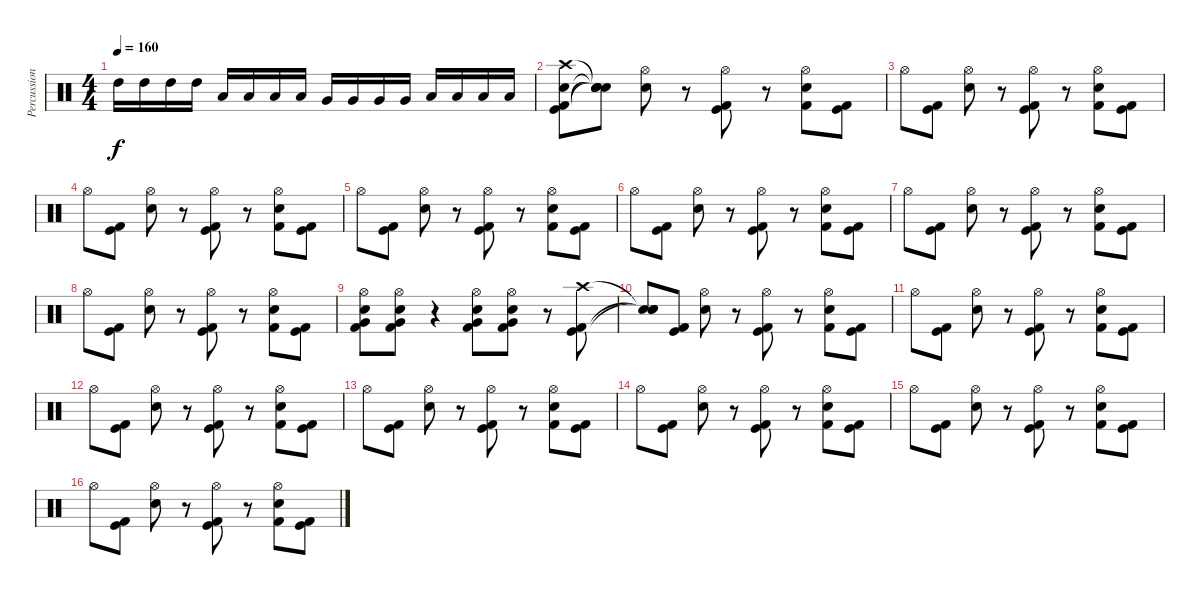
\track ("Percussions" "Percussion") {instrument percussion}
\staff {score}
\articulation defaults
\ts (4 4)
\tempo 160
\clef neutral
\ks c "High Tom (hit)".16{dy f} "High Tom (hit)".16 "High Tom (hit)".16 "High Tom (hit)".16 "Low Tom (hit)".16 "Low Tom (hit)".16 "Low Tom (hit)".16 "Low Tom (hit)".16 "Very Low Tom (hit)".16 "Very Low Tom (hit)".16 "Very Low Tom (hit)".16 "Very Low Tom (hit)".16 "Low Floor Tom (hit)".16 "Low Floor Tom (hit)".16 "Low Floor Tom (hit)".16 "Low Floor Tom (hit)".16
|
("Snare (hit) 2" "Kick (hit)" "Kick (hit) 2" "Crash high (hit)").8 ("Snare (hit)"{t} "Snare (hit)"{t} "Snare (hit)"{t} "Snare (hit)"{t}).8 ("Snare (hit) 2" "Hi-Hat (open)").8 r.8 ("Kick (hit) 2" "Kick (hit)" "Hi-Hat (open)").8 r.8 ("Kick (hit) 2" "Snare (hit) 2" "Hi-Hat (open)").8 ("Kick (hit) 2" "Kick (hit)").8 |
"Hi-Hat (open)".8 ("Kick (hit) 2" "Kick (hit)").8 ("Snare (hit) 2" "Hi-Hat (open)").8 r.8 ("Kick (hit) 2" "Kick (hit)" "Hi-Hat (open)").8 r.8 ("Kick (hit) 2" "Snare (hit) 2" "Hi-Hat (open)").8 ("Kick (hit) 2" "Kick (hit)").8 |
"Hi-Hat (open)".8 ("Kick (hit) 2" "Kick (hit)").8 ("Snare (hit) 2" "Hi-Hat (open)").8 r.8 ("Kick (hit) 2" "Kick (hit)" "Hi-Hat (open)").8 r.8 ("Kick (hit) 2" "Snare (hit) 2" "Hi-Hat (open)").8 ("Kick (hit) 2" "Kick (hit)").8 |
"Hi-Hat (open)".8 ("Kick (hit) 2" "Kick (hit)").8 ("Snare (hit) 2" "Hi-Hat (open)").8 r.8 ("Kick (hit) 2" "Kick (hit)" "Hi-Hat (open)").8 r.8 ("Kick (hit) 2" "Snare (hit) 2" "Hi-Hat (open)").8 ("Kick (hit) 2" "Kick (hit)").8 |
"Hi-Hat (open)".8 ("Kick (hit) 2" "Kick (hit)").8 ("Snare (hit) 2" "Hi-Hat (open)").8 r.8 ("Kick (hit) 2" "Kick (hit)" "Hi-Hat (open)").8 r.8 ("Kick (hit) 2" "Snare (hit) 2" "Hi-Hat (open)").8 ("Kick (hit) 2" "Kick (hit)").8 |
"Hi-Hat (open)".8 ("Kick (hit) 2" "Kick (hit)").8 ("Snare (hit) 2" "Hi-Hat (open)").8 r.8 ("Kick (hit) 2" "Kick (hit)" "Hi-Hat (open)").8 r.8 ("Kick (hit) 2" "Snare (hit) 2" "Hi-Hat (open)").8 ("Kick (hit) 2" "Kick (hit)").8 |
"Hi-Hat (open)".8 ("Kick (hit) 2" "Kick (hit)").8 ("Snare (hit) 2" "Hi-Hat (open)").8 r.8 ("Kick (hit) 2" "Kick (hit)" "Hi-Hat (open)").8 r.8 ("Kick (hit) 2" "Snare (hit) 2" "Hi-Hat (open)").8 ("Kick (hit) 2" "Kick (hit)").8 |
("Hi-Hat (open)" "Snare (hit) 2" "Very Low Tom (hit)" "Kick (hit) 2").8 ("Hi-Hat (open)" "Snare (hit) 2" "Very Low Tom (hit)" "Kick (hit) 2").8 r.4 ("Hi-Hat (open)" "Snare (hit) 2" "Very Low Tom (hit)" "Kick (hit) 2").8 ("Hi-Hat (open)" "Snare (hit) 2" "Very Low Tom (hit)" "Kick (hit) 2").8 r.8 ("Kick (hit) 2" "Kick (hit)" "Crash high (hit)").8 |
("Snare (hit)"{t} "Snare (hit)"{t} "Snare (hit)"{t}).8 ("Kick (hit) 2" "Kick (hit)").8 ("Snare (hit) 2" "Hi-Hat (open)").8 r.8 ("Kick (hit) 2" "Kick (hit)" "Hi-Hat (open)").8 r.8 ("Kick (hit) 2" "Snare (hit) 2" "Hi-Hat (open)").8 ("Kick (hit) 2" "Kick (hit)").8 |
"Hi-Hat (open)".8 ("Kick (hit) 2" "Kick (hit)").8 ("Snare (hit) 2" "Hi-Hat (open)").8 r.8 ("Kick (hit) 2" "Kick (hit)" "Hi-Hat (open)").8 r.8 ("Kick (hit) 2" "Snare (hit) 2" "Hi-Hat (open)").8 ("Kick (hit) 2" "Kick (hit)").8 |
"Hi-Hat (open)".8 ("Kick (hit) 2" "Kick (hit)").8 ("Snare (hit) 2" "Hi-Hat (open)").8 r.8 ("Kick (hit) 2" "Kick (hit)" "Hi-Hat (open)").8 r.8 ("Kick (hit) 2" "Snare (hit) 2" "Hi-Hat (open)").8 ("Kick (hit) 2" "Kick (hit)").8 |
"Hi-Hat (open)".8 ("Kick (hit) 2" "Kick (hit)").8 ("Snare (hit) 2" "Hi-Hat (open)").8 r.8 ("Kick (hit) 2" "Kick (hit)" "Hi-Hat (open)").8 r.8 ("Kick (hit) 2" "Snare (hit) 2" "Hi-Hat (open)").8 ("Kick (hit) 2" "Kick (hit)").8 |
"Hi-Hat (open)".8 ("Kick (hit) 2" "Kick (hit)").8 ("Snare (hit) 2" "Hi-Hat (open)").8 r.8 ("Kick (hit) 2" "Kick (hit)" "Hi-Hat (open)").8 r.8 ("Kick (hit) 2" "Snare (hit) 2" "Hi-Hat (open)").8 ("Kick (hit) 2" "Kick (hit)").8 |
"Hi-Hat (open)".8 ("Kick (hit) 2" "Kick (hit)").8 ("Snare (hit) 2" "Hi-Hat (open)").8 r.8 ("Kick (hit) 2" "Kick (hit)" "Hi-Hat (open)").8 r.8 ("Kick (hit) 2" "Snare (hit) 2" "Hi-Hat (open)").8 ("Kick (hit) 2" "Kick (hit)").8 |
"Hi-Hat (open)".8 ("Kick (hit) 2" "Kick (hit)").8 ("Snare (hit) 2" "Hi-Hat (open)").8 r.8 ("Kick (hit) 2" "Kick (hit)" "Hi-Hat (open)").8 r.8 ("Kick (hit) 2" "Snare (hit) 2" "Hi-Hat (open)").8 ("Kick (hit) 2" "Kick (hit)").8
